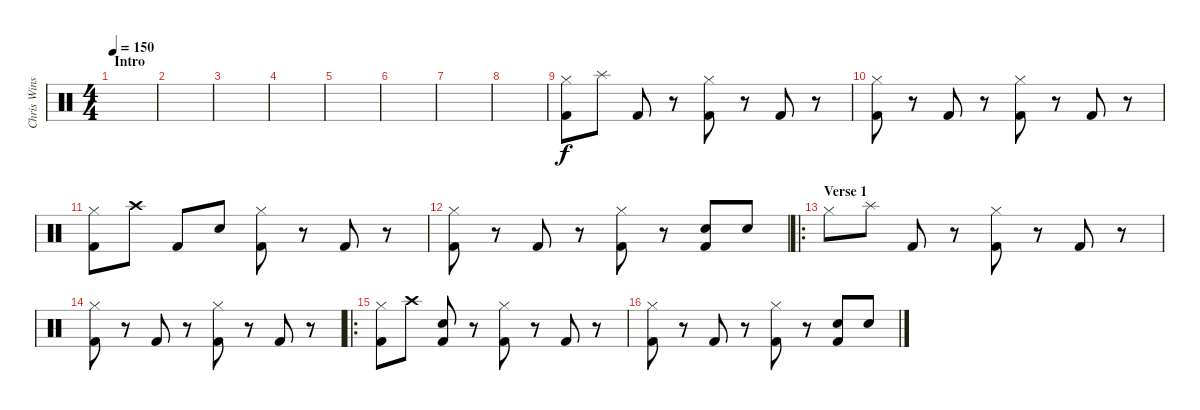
\track ("Chris Winship (Drums)" "Chris Wins") {instrument percussion}
\staff {score}
\articulation defaults
\ts (4 4)
\section ("" "Intro")
\tempo 150
\tempo 80
\tempo 150
\clef neutral
\ks c
|
|
|
|
|
|
|
|
("Hi-Hat (closed)" "Kick (hit) 2").8 "Splash (hit)".8 "Kick (hit) 2".8 r.8 ("Hi-Hat (closed)" "Kick (hit) 2").8 r.8 "Kick (hit) 2".8 r.8 |
("Hi-Hat (closed)" "Kick (hit) 2").8 r.8 "Kick (hit) 2".8 r.8 ("Hi-Hat (closed)" "Kick (hit) 2").8 r.8 "Kick (hit) 2".8 r.8 |
("Hi-Hat (closed)" "Kick (hit) 2").8 "Crash high (hit)".8 "Kick (hit) 2".8 "Snare (hit) 2".8 ("Hi-Hat (closed)" "Kick (hit) 2").8 r.8 "Kick (hit) 2".8 r.8 |
("Hi-Hat (closed)" "Kick (hit) 2").8 r.8 "Kick (hit) 2".8 r.8 ("Hi-Hat (closed)" "Kick (hit) 2").8 r.8 ("Snare (hit) 2" "Kick (hit) 2").8 "Snare (hit) 2".8 |
\ro
\section ("" "Verse 1")
"Hi-Hat (closed)".8 "Splash (hit)".8 "Kick (hit) 2".8 r.8 ("Hi-Hat (closed)" "Kick (hit) 2").8 r.8 "Kick (hit) 2".8 r.8 |
("Hi-Hat (closed)" "Kick (hit) 2").8 r.8 "Kick (hit) 2".8 r.8 ("Hi-Hat (closed)" "Kick (hit) 2").8 r.8 "Kick (hit) 2".8 r.8 |
\ro
("Hi-Hat (closed)" "Kick (hit) 2").8 "Crash high (hit)".8 ("Snare (hit) 2" "Kick (hit) 2").8 r.8 ("Hi-Hat (closed)" "Kick (hit) 2").8 r.8 "Kick (hit) 2".8 r.8 |
("Hi-Hat (closed)" "Kick (hit) 2").8 r.8 "Kick (hit) 2".8 r.8 ("Hi-Hat (closed)" "Kick (hit) 2").8 r.8 ("Snare (hit) 2" "Kick (hit) 2").8 "Snare (hit) 2".8
